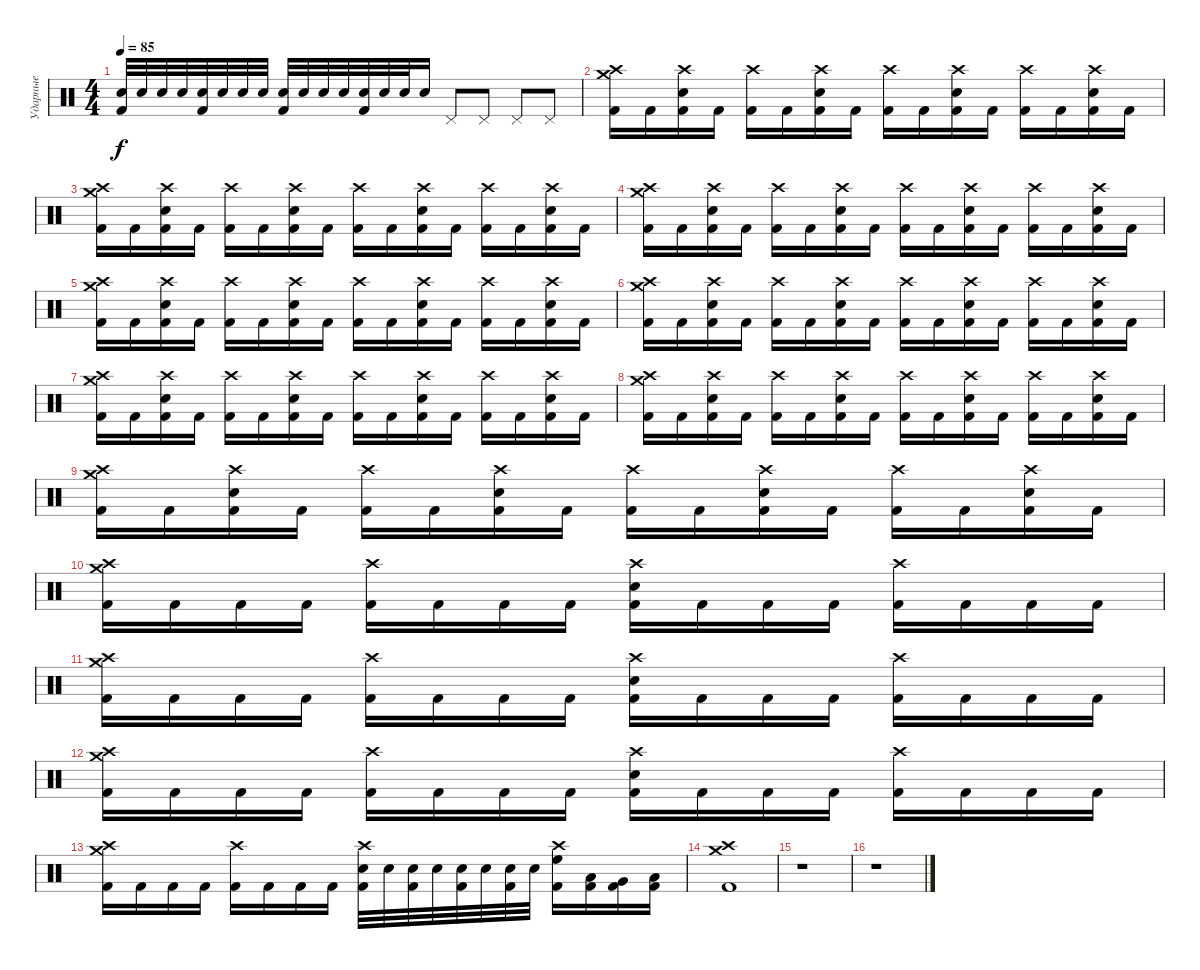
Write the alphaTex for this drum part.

\track ("Ударные" "Ударные") {instrument percussion}
\staff {score}
\articulation defaults
\ts (4 4)
\tempo 85
\clef neutral
\ks c
("Electric Snare (hit)" "Kick (hit) 2").32{dy f} "Electric Snare (hit)".32 "Electric Snare (hit)".32 "Electric Snare (hit)".32 ("Electric Snare (hit)" "Kick (hit) 2").32 "Electric Snare (hit)".32 "Electric Snare (hit)".32 "Electric Snare (hit)".32 ("Electric Snare (hit)" "Kick (hit) 2").32 "Electric Snare (hit)".32 "Electric Snare (hit)".32 "Electric Snare (hit)".32 ("Electric Snare (hit)" "Kick (hit) 2").32 "Electric Snare (hit)".32 "Electric Snare (hit)".32 "Electric Snare (hit)".16 "Pedal Hi-Hat (hit)".8 "Pedal Hi-Hat (hit)".8 "Pedal Hi-Hat (hit)".8 "Pedal Hi-Hat (hit)".8 |
("Crash medium (hit)" "Crash high (hit)" "Kick (hit) 2").16 "Kick (hit) 2".16 ("Electric Snare (hit)" "Crash high (hit)" "Kick (hit) 2").16 "Kick (hit) 2".16 ("Crash high (hit)" "Kick (hit) 2").16 "Kick (hit) 2".16 ("Electric Snare (hit)" "Crash high (hit)" "Kick (hit) 2").16 "Kick (hit) 2".16 ("Crash high (hit)" "Kick (hit) 2").16 "Kick (hit) 2".16 ("Electric Snare (hit)" "Crash high (hit)" "Kick (hit) 2").16 "Kick (hit) 2".16 ("Crash high (hit)" "Kick (hit) 2").16 "Kick (hit) 2".16 ("Electric Snare (hit)" "Crash high (hit)" "Kick (hit) 2").16 "Kick (hit) 2".16 |
("Crash medium (hit)" "Crash high (hit)" "Kick (hit) 2").16 "Kick (hit) 2".16 ("Electric Snare (hit)" "Crash high (hit)" "Kick (hit) 2").16 "Kick (hit) 2".16 ("Crash high (hit)" "Kick (hit) 2").16 "Kick (hit) 2".16 ("Electric Snare (hit)" "Crash high (hit)" "Kick (hit) 2").16 "Kick (hit) 2".16 ("Crash high (hit)" "Kick (hit) 2").16 "Kick (hit) 2".16 ("Electric Snare (hit)" "Crash high (hit)" "Kick (hit) 2").16 "Kick (hit) 2".16 ("Crash high (hit)" "Kick (hit) 2").16 "Kick (hit) 2".16 ("Electric Snare (hit)" "Crash high (hit)" "Kick (hit) 2").16 "Kick (hit) 2".16 |
("Crash medium (hit)" "Crash high (hit)" "Kick (hit) 2").16 "Kick (hit) 2".16 ("Electric Snare (hit)" "Crash high (hit)" "Kick (hit) 2").16 "Kick (hit) 2".16 ("Crash high (hit)" "Kick (hit) 2").16 "Kick (hit) 2".16 ("Electric Snare (hit)" "Crash high (hit)" "Kick (hit) 2").16 "Kick (hit) 2".16 ("Crash high (hit)" "Kick (hit) 2").16 "Kick (hit) 2".16 ("Electric Snare (hit)" "Crash high (hit)" "Kick (hit) 2").16 "Kick (hit) 2".16 ("Crash high (hit)" "Kick (hit) 2").16 "Kick (hit) 2".16 ("Electric Snare (hit)" "Crash high (hit)" "Kick (hit) 2").16 "Kick (hit) 2".16 |
("Crash medium (hit)" "Crash high (hit)" "Kick (hit) 2").16 "Kick (hit) 2".16 ("Electric Snare (hit)" "Crash high (hit)" "Kick (hit) 2").16 "Kick (hit) 2".16 ("Crash high (hit)" "Kick (hit) 2").16 "Kick (hit) 2".16 ("Electric Snare (hit)" "Crash high (hit)" "Kick (hit) 2").16 "Kick (hit) 2".16 ("Crash high (hit)" "Kick (hit) 2").16 "Kick (hit) 2".16 ("Electric Snare (hit)" "Crash high (hit)" "Kick (hit) 2").16 "Kick (hit) 2".16 ("Crash high (hit)" "Kick (hit) 2").16 "Kick (hit) 2".16 ("Electric Snare (hit)" "Crash high (hit)" "Kick (hit) 2").16 "Kick (hit) 2".16 |
("Crash medium (hit)" "Crash high (hit)" "Kick (hit) 2").16 "Kick (hit) 2".16 ("Electric Snare (hit)" "Crash high (hit)" "Kick (hit) 2").16 "Kick (hit) 2".16 ("Crash high (hit)" "Kick (hit) 2").16 "Kick (hit) 2".16 ("Electric Snare (hit)" "Crash high (hit)" "Kick (hit) 2").16 "Kick (hit) 2".16 ("Crash high (hit)" "Kick (hit) 2").16 "Kick (hit) 2".16 ("Electric Snare (hit)" "Crash high (hit)" "Kick (hit) 2").16 "Kick (hit) 2".16 ("Crash high (hit)" "Kick (hit) 2").16 "Kick (hit) 2".16 ("Electric Snare (hit)" "Crash high (hit)" "Kick (hit) 2").16 "Kick (hit) 2".16 |
("Crash medium (hit)" "Crash high (hit)" "Kick (hit) 2").16 "Kick (hit) 2".16 ("Electric Snare (hit)" "Crash high (hit)" "Kick (hit) 2").16 "Kick (hit) 2".16 ("Crash high (hit)" "Kick (hit) 2").16 "Kick (hit) 2".16 ("Electric Snare (hit)" "Crash high (hit)" "Kick (hit) 2").16 "Kick (hit) 2".16 ("Crash high (hit)" "Kick (hit) 2").16 "Kick (hit) 2".16 ("Electric Snare (hit)" "Crash high (hit)" "Kick (hit) 2").16 "Kick (hit) 2".16 ("Crash high (hit)" "Kick (hit) 2").16 "Kick (hit) 2".16 ("Electric Snare (hit)" "Crash high (hit)" "Kick (hit) 2").16 "Kick (hit) 2".16 |
("Crash medium (hit)" "Crash high (hit)" "Kick (hit) 2").16 "Kick (hit) 2".16 ("Electric Snare (hit)" "Crash high (hit)" "Kick (hit) 2").16 "Kick (hit) 2".16 ("Crash high (hit)" "Kick (hit) 2").16 "Kick (hit) 2".16 ("Electric Snare (hit)" "Crash high (hit)" "Kick (hit) 2").16 "Kick (hit) 2".16 ("Crash high (hit)" "Kick (hit) 2").16 "Kick (hit) 2".16 ("Electric Snare (hit)" "Crash high (hit)" "Kick (hit) 2").16 "Kick (hit) 2".16 ("Crash high (hit)" "Kick (hit) 2").16 "Kick (hit) 2".16 ("Electric Snare (hit)" "Crash high (hit)" "Kick (hit) 2").16 "Kick (hit) 2".16 |
("Crash medium (hit)" "Crash high (hit)" "Kick (hit) 2").16 "Kick (hit) 2".16 ("Electric Snare (hit)" "Crash high (hit)" "Kick (hit) 2").16 "Kick (hit) 2".16 ("Crash high (hit)" "Kick (hit) 2").16 "Kick (hit) 2".16 ("Electric Snare (hit)" "Crash high (hit)" "Kick (hit) 2").16 "Kick (hit) 2".16 ("Crash high (hit)" "Kick (hit) 2").16 "Kick (hit) 2".16 ("Electric Snare (hit)" "Crash high (hit)" "Kick (hit) 2").16 "Kick (hit) 2".16 ("Crash high (hit)" "Kick (hit) 2").16 "Kick (hit) 2".16 ("Electric Snare (hit)" "Crash high (hit)" "Kick (hit) 2").16 "Kick (hit) 2".16 |
("Crash medium (hit)" "Crash high (hit)" "Kick (hit) 2").16 "Kick (hit) 2".16 "Kick (hit) 2".16 "Kick (hit) 2".16 ("Crash high (hit)" "Kick (hit) 2").16 "Kick (hit) 2".16 "Kick (hit) 2".16 "Kick (hit) 2".16 ("Electric Snare (hit)" "Crash high (hit)" "Kick (hit) 2").16 "Kick (hit) 2".16 "Kick (hit) 2".16 "Kick (hit) 2".16 ("Crash high (hit)" "Kick (hit) 2").16 "Kick (hit) 2".16 "Kick (hit) 2".16 "Kick (hit) 2".16 |
("Crash medium (hit)" "Crash high (hit)" "Kick (hit) 2").16 "Kick (hit) 2".16 "Kick (hit) 2".16 "Kick (hit) 2".16 ("Crash high (hit)" "Kick (hit) 2").16 "Kick (hit) 2".16 "Kick (hit) 2".16 "Kick (hit) 2".16 ("Electric Snare (hit)" "Crash high (hit)" "Kick (hit) 2").16 "Kick (hit) 2".16 "Kick (hit) 2".16 "Kick (hit) 2".16 ("Crash high (hit)" "Kick (hit) 2").16 "Kick (hit) 2".16 "Kick (hit) 2".16 "Kick (hit) 2".16 |
("Crash medium (hit)" "Crash high (hit)" "Kick (hit) 2").16 "Kick (hit) 2".16 "Kick (hit) 2".16 "Kick (hit) 2".16 ("Crash high (hit)" "Kick (hit) 2").16 "Kick (hit) 2".16 "Kick (hit) 2".16 "Kick (hit) 2".16 ("Electric Snare (hit)" "Crash high (hit)" "Kick (hit) 2").16 "Kick (hit) 2".16 "Kick (hit) 2".16 "Kick (hit) 2".16 ("Crash high (hit)" "Kick (hit) 2").16 "Kick (hit) 2".16 "Kick (hit) 2".16 "Kick (hit) 2".16 |
("Crash medium (hit)" "Crash high (hit)" "Kick (hit) 2").16 "Kick (hit) 2".16 "Kick (hit) 2".16 "Kick (hit) 2".16 ("Crash high (hit)" "Kick (hit) 2").16 "Kick (hit) 2".16 "Kick (hit) 2".16 "Kick (hit) 2".16 ("Electric Snare (hit)" "Crash high (hit)" "Kick (hit) 2").32 "Electric Snare (hit)".32 ("Electric Snare (hit)" "Kick (hit) 2").32 "Electric Snare (hit)".32 ("Electric Snare (hit)" "Kick (hit) 2").32 "Electric Snare (hit)".32 ("Electric Snare (hit)" "Kick (hit) 2").32 "Electric Snare (hit)".32 ("High Floor Tom (hit)" "Crash high (hit)" "Kick (hit) 2").16 ("Low Tom (hit)" "Kick (hit) 2").16 ("Very Low Tom (hit)" "Kick (hit) 2").16 ("Low Floor Tom (hit)" "Kick (hit) 2").16 |
("Crash medium (hit)" "Crash high (hit)" "Kick (hit) 2").1 |
r.1 |
r.1
